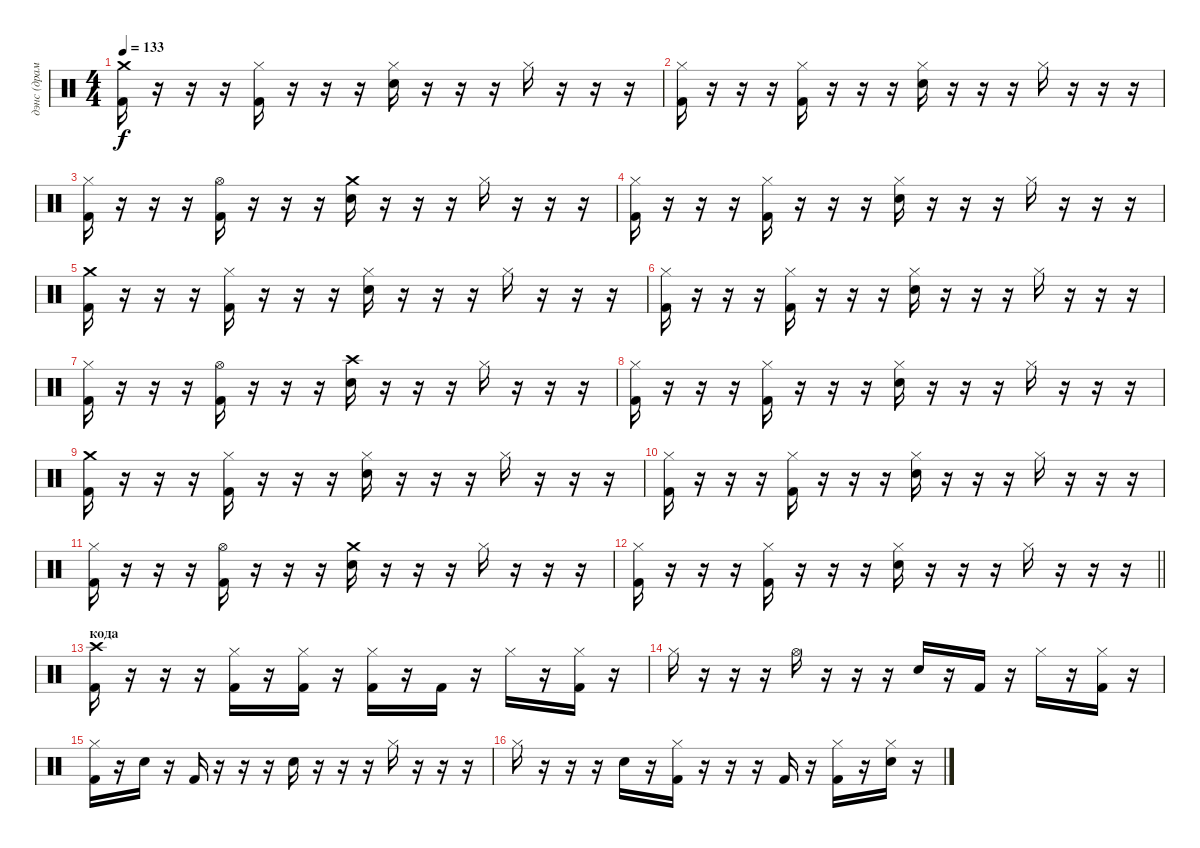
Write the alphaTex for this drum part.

\track ("дэнс (драммы)" "дэнс (драм") {instrument percussion}
\staff {score}
\articulation defaults
\ts (4 4)
\tempo 133
\clef neutral
\ks c
("Kick (hit) 2" "Crash medium (hit)").16{dy f} r.16 r.16 r.16 ("Kick (hit) 2" "Hi-Hat (closed)").16 r.16 r.16 r.16 ("Snare (hit) 2" "Hi-Hat (closed)").16 r.16 r.16 r.16 "Hi-Hat (closed)".16 r.16 r.16 r.16 |
("Kick (hit) 2" "Hi-Hat (closed)").16 r.16 r.16 r.16 ("Kick (hit) 2" "Hi-Hat (closed)").16 r.16 r.16 r.16 ("Snare (hit) 2" "Hi-Hat (closed)").16 r.16 r.16 r.16 "Hi-Hat (closed)".16 r.16 r.16 r.16 |
("Kick (hit) 2" "Hi-Hat (closed)").16 r.16 r.16 r.16 ("Kick (hit) 2" "Hi-Hat (open)").16 r.16 r.16 r.16 ("Snare (hit) 2" "Crash medium (hit)").16 r.16 r.16 r.16 "Hi-Hat (closed)".16 r.16 r.16 r.16 |
("Kick (hit) 2" "Hi-Hat (closed)").16 r.16 r.16 r.16 ("Kick (hit) 2" "Hi-Hat (closed)").16 r.16 r.16 r.16 ("Snare (hit) 2" "Hi-Hat (closed)").16 r.16 r.16 r.16 "Hi-Hat (closed)".16 r.16 r.16 r.16 |
("Kick (hit) 2" "Crash medium (hit)").16 r.16 r.16 r.16 ("Kick (hit) 2" "Hi-Hat (closed)").16 r.16 r.16 r.16 ("Snare (hit) 2" "Hi-Hat (closed)").16 r.16 r.16 r.16 "Hi-Hat (closed)".16 r.16 r.16 r.16 |
("Kick (hit) 2" "Hi-Hat (closed)").16 r.16 r.16 r.16 ("Kick (hit) 2" "Hi-Hat (closed)").16 r.16 r.16 r.16 ("Snare (hit) 2" "Hi-Hat (closed)").16 r.16 r.16 r.16 "Hi-Hat (closed)".16 r.16 r.16 r.16 |
("Kick (hit) 2" "Hi-Hat (closed)").16 r.16 r.16 r.16 ("Kick (hit) 2" "Hi-Hat (open)").16 r.16 r.16 r.16 ("Snare (hit) 2" "Crash high (hit)").16 r.16 r.16 r.16 "Hi-Hat (closed)".16 r.16 r.16 r.16 |
("Kick (hit) 2" "Hi-Hat (closed)").16 r.16 r.16 r.16 ("Kick (hit) 2" "Hi-Hat (closed)").16 r.16 r.16 r.16 ("Snare (hit) 2" "Hi-Hat (closed)").16 r.16 r.16 r.16 "Hi-Hat (closed)".16 r.16 r.16 r.16 |
("Kick (hit) 2" "Crash medium (hit)").16 r.16 r.16 r.16 ("Kick (hit) 2" "Hi-Hat (closed)").16 r.16 r.16 r.16 ("Snare (hit) 2" "Hi-Hat (closed)").16 r.16 r.16 r.16 "Hi-Hat (closed)".16 r.16 r.16 r.16 |
("Kick (hit) 2" "Hi-Hat (closed)").16 r.16 r.16 r.16 ("Kick (hit) 2" "Hi-Hat (closed)").16 r.16 r.16 r.16 ("Snare (hit) 2" "Hi-Hat (closed)").16 r.16 r.16 r.16 "Hi-Hat (closed)".16 r.16 r.16 r.16 |
("Kick (hit) 2" "Hi-Hat (closed)").16 r.16 r.16 r.16 ("Kick (hit) 2" "Hi-Hat (open)").16 r.16 r.16 r.16 ("Snare (hit) 2" "Crash medium (hit)").16 r.16 r.16 r.16 "Hi-Hat (closed)".16 r.16 r.16 r.16 |
\barLineRight lightlight
("Kick (hit) 2" "Hi-Hat (closed)").16 r.16 r.16 r.16 ("Kick (hit) 2" "Hi-Hat (closed)").16 r.16 r.16 r.16 ("Snare (hit) 2" "Hi-Hat (closed)").16 r.16 r.16 r.16 "Hi-Hat (closed)".16 r.16 r.16 r.16 |
\section ("" "кода")
("Kick (hit) 2" "Crash high (hit)").16 r.16 r.16 r.16 ("Kick (hit) 2" "Hi-Hat (closed)").16 r.16 ("Kick (hit) 2" "Hi-Hat (closed)").16 r.16 ("Kick (hit) 2" "Hi-Hat (closed)").16 r.16 "Kick (hit) 2".16 r.16 "Hi-Hat (closed)".16 r.16 ("Kick (hit) 2" "Hi-Hat (closed)").16 r.16 |
"Hi-Hat (closed)".16 r.16 r.16 r.16 "Hi-Hat (open)".16 r.16 r.16 r.16 "Snare (hit) 2".16 r.16 "Kick (hit) 2".16 r.16 "Hi-Hat (closed)".16 r.16 ("Kick (hit) 2" "Hi-Hat (closed)").16 r.16 |
("Kick (hit) 2" "Hi-Hat (closed)").16 r.16 "Snare (hit) 2".16 r.16 "Kick (hit) 2".16 r.16 r.16 r.16 "Snare (hit) 2".16 r.16 r.16 r.16 "Hi-Hat (closed)".16 r.16 r.16 r.16 |
"Hi-Hat (closed)".16 r.16 r.16 r.16 "Snare (hit) 2".16 r.16 ("Kick (hit) 2" "Hi-Hat (closed)").16 r.16 r.16 r.16 "Kick (hit) 2".16 r.16 ("Kick (hit) 2" "Hi-Hat (closed)").16 r.16 ("Snare (hit) 2" "Hi-Hat (closed)").16 r.16
